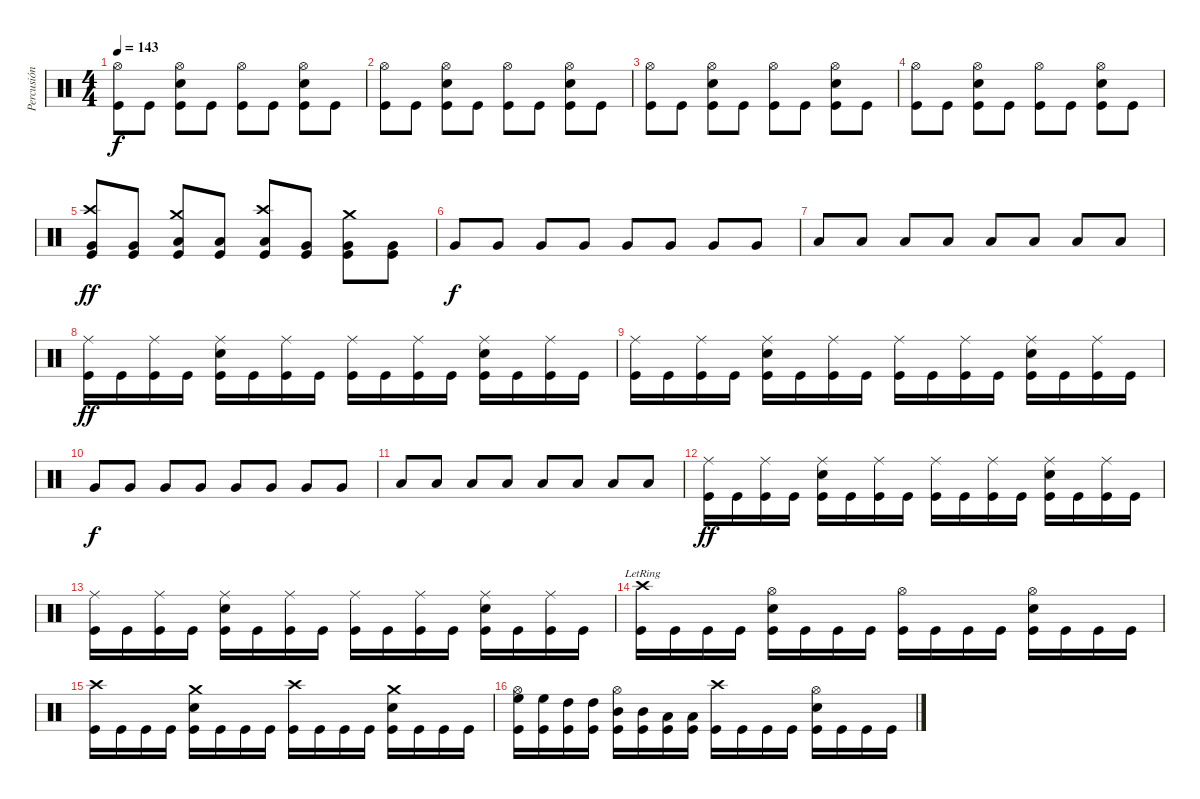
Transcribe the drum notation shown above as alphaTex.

\track ("Percusión" "Percusión") {instrument percussion}
\staff {score}
\articulation defaults
\ts (4 4)
\tempo 143
\clef neutral
\ks c
("Hi-Hat (open)" "Kick (hit)").8{dy f} "Kick (hit)".8 ("Hi-Hat (open)" "Snare (hit) 2" "Kick (hit)").8 "Kick (hit)".8 ("Hi-Hat (open)" "Kick (hit)").8 "Kick (hit)".8 ("Hi-Hat (open)" "Snare (hit) 2" "Kick (hit)").8 "Kick (hit)".8 |
("Hi-Hat (open)" "Kick (hit)").8 "Kick (hit)".8 ("Hi-Hat (open)" "Snare (hit) 2" "Kick (hit)").8 "Kick (hit)".8 ("Hi-Hat (open)" "Kick (hit)").8 "Kick (hit)".8 ("Hi-Hat (open)" "Snare (hit) 2" "Kick (hit)").8 "Kick (hit)".8 |
("Hi-Hat (open)" "Kick (hit)").8 "Kick (hit)".8 ("Hi-Hat (open)" "Snare (hit) 2" "Kick (hit)").8 "Kick (hit)".8 ("Hi-Hat (open)" "Kick (hit)").8 "Kick (hit)".8 ("Hi-Hat (open)" "Snare (hit) 2" "Kick (hit)").8 "Kick (hit)".8 |
("Hi-Hat (open)" "Kick (hit)").8 "Kick (hit)".8 ("Hi-Hat (open)" "Snare (hit) 2" "Kick (hit)").8 "Kick (hit)".8 ("Hi-Hat (open)" "Kick (hit)").8 "Kick (hit)".8 ("Hi-Hat (open)" "Snare (hit) 2" "Kick (hit)").8 "Kick (hit)".8 |
("Crash high (hit)" "Very Low Tom (hit)" "Kick (hit)").8{dy ff} ("Very Low Tom (hit)" "Kick (hit)").8 ("Crash medium (hit)" "Low Floor Tom (hit)" "Kick (hit)").8 ("Low Floor Tom (hit)" "Kick (hit)").8 ("Crash high (hit)" "Low Floor Tom (hit)" "Kick (hit)").8 ("Very Low Tom (hit)" "Kick (hit)").8 ("Crash medium (hit)" "Very Low Tom (hit)" "Kick (hit)").8 ("Very Low Tom (hit)" "Kick (hit)").8 |
"Very Low Tom (hit)".8{dy f} "Very Low Tom (hit)".8 "Very Low Tom (hit)".8 "Very Low Tom (hit)".8 "Very Low Tom (hit)".8 "Very Low Tom (hit)".8 "Very Low Tom (hit)".8 "Very Low Tom (hit)".8 |
"Low Floor Tom (hit)".8 "Low Floor Tom (hit)".8 "Low Floor Tom (hit)".8 "Low Floor Tom (hit)".8 "Low Floor Tom (hit)".8 "Low Floor Tom (hit)".8 "Low Floor Tom (hit)".8 "Low Floor Tom (hit)".8 |
("Ride (middle)" "Kick (hit)").16{dy ff} "Kick (hit)".16 ("Ride (middle)" "Kick (hit)").16 "Kick (hit)".16 ("Ride (middle)" "Snare (hit) 2" "Kick (hit)").16 "Kick (hit)".16 ("Ride (middle)" "Kick (hit)").16 "Kick (hit)".16 ("Ride (middle)" "Kick (hit)").16 "Kick (hit)".16 ("Ride (middle)" "Kick (hit)").16 "Kick (hit)".16 ("Ride (middle)" "Snare (hit) 2" "Kick (hit)").16 "Kick (hit)".16 ("Ride (middle)" "Kick (hit)").16 "Kick (hit)".16 |
("Ride (middle)" "Kick (hit)").16 "Kick (hit)".16 ("Ride (middle)" "Kick (hit)").16 "Kick (hit)".16 ("Ride (middle)" "Snare (hit) 2" "Kick (hit)").16 "Kick (hit)".16 ("Ride (middle)" "Kick (hit)").16 "Kick (hit)".16 ("Ride (middle)" "Kick (hit)").16 "Kick (hit)".16 ("Ride (middle)" "Kick (hit)").16 "Kick (hit)".16 ("Ride (middle)" "Snare (hit) 2" "Kick (hit)").16 "Kick (hit)".16 ("Ride (middle)" "Kick (hit)").16 "Kick (hit)".16 |
"Very Low Tom (hit)".8{dy f} "Very Low Tom (hit)".8 "Very Low Tom (hit)".8 "Very Low Tom (hit)".8 "Very Low Tom (hit)".8 "Very Low Tom (hit)".8 "Very Low Tom (hit)".8 "Very Low Tom (hit)".8 |
"Low Floor Tom (hit)".8 "Low Floor Tom (hit)".8 "Low Floor Tom (hit)".8 "Low Floor Tom (hit)".8 "Low Floor Tom (hit)".8 "Low Floor Tom (hit)".8 "Low Floor Tom (hit)".8 "Low Floor Tom (hit)".8 |
("Ride (middle)" "Kick (hit)").16{dy ff} "Kick (hit)".16 ("Ride (middle)" "Kick (hit)").16 "Kick (hit)".16 ("Ride (middle)" "Snare (hit) 2" "Kick (hit)").16 "Kick (hit)".16 ("Ride (middle)" "Kick (hit)").16 "Kick (hit)".16 ("Ride (middle)" "Kick (hit)").16 "Kick (hit)".16 ("Ride (middle)" "Kick (hit)").16 "Kick (hit)".16 ("Ride (middle)" "Snare (hit) 2" "Kick (hit)").16 "Kick (hit)".16 ("Ride (middle)" "Kick (hit)").16 "Kick (hit)".16 |
("Ride (middle)" "Kick (hit)").16 "Kick (hit)".16 ("Ride (middle)" "Kick (hit)").16 "Kick (hit)".16 ("Ride (middle)" "Snare (hit) 2" "Kick (hit)").16 "Kick (hit)".16 ("Ride (middle)" "Kick (hit)").16 "Kick (hit)".16 ("Ride (middle)" "Kick (hit)").16 "Kick (hit)".16 ("Ride (middle)" "Kick (hit)").16 "Kick (hit)".16 ("Ride (middle)" "Snare (hit) 2" "Kick (hit)").16 "Kick (hit)".16 ("Ride (middle)" "Kick (hit)").16 "Kick (hit)".16 |
("Crash high (hit)"{lr} "Kick (hit)").16 "Kick (hit)".16 "Kick (hit)".16 "Kick (hit)".16 ("Hi-Hat (open)" "Snare (hit) 2" "Kick (hit)").16 "Kick (hit)".16 "Kick (hit)".16 "Kick (hit)".16 ("Hi-Hat (open)" "Kick (hit)").16 "Kick (hit)".16 "Kick (hit)".16 "Kick (hit)".16 ("Hi-Hat (open)" "Snare (hit) 2" "Kick (hit)").16 "Kick (hit)".16 "Kick (hit)".16 "Kick (hit)".16 |
("Crash high (hit)" "Kick (hit)").16 "Kick (hit)".16 "Kick (hit)".16 "Kick (hit)".16 ("Crash medium (hit)" "Snare (hit) 2" "Kick (hit)").16 "Kick (hit)".16 "Kick (hit)".16 "Kick (hit)".16 ("Crash high (hit)" "Kick (hit)").16 "Kick (hit)".16 "Kick (hit)".16 "Kick (hit)".16 ("Crash medium (hit)" "Snare (hit) 2" "Kick (hit)").16 "Kick (hit)".16 "Kick (hit)".16 "Kick (hit)".16 |
("Hi-Hat (open)" "High Floor Tom (hit)" "Kick (hit)").16 ("High Floor Tom (hit)" "Kick (hit)").16 ("High Tom (hit)" "Kick (hit)").16 ("High Tom (hit)" "Kick (hit)").16 ("Hi-Hat (open)" "Mid Tom (hit)" "Kick (hit)").16 ("Mid Tom (hit)" "Kick (hit)").16 ("Low Tom (hit)" "Kick (hit)").16 ("Low Tom (hit)" "Kick (hit)").16 ("Crash high (hit)" "Kick (hit)").16 "Kick (hit)".16 "Kick (hit)".16 "Kick (hit)".16 ("Hi-Hat (open)" "Snare (hit) 2" "Kick (hit)").16 "Kick (hit)".16 "Kick (hit)".16 "Kick (hit)".16
